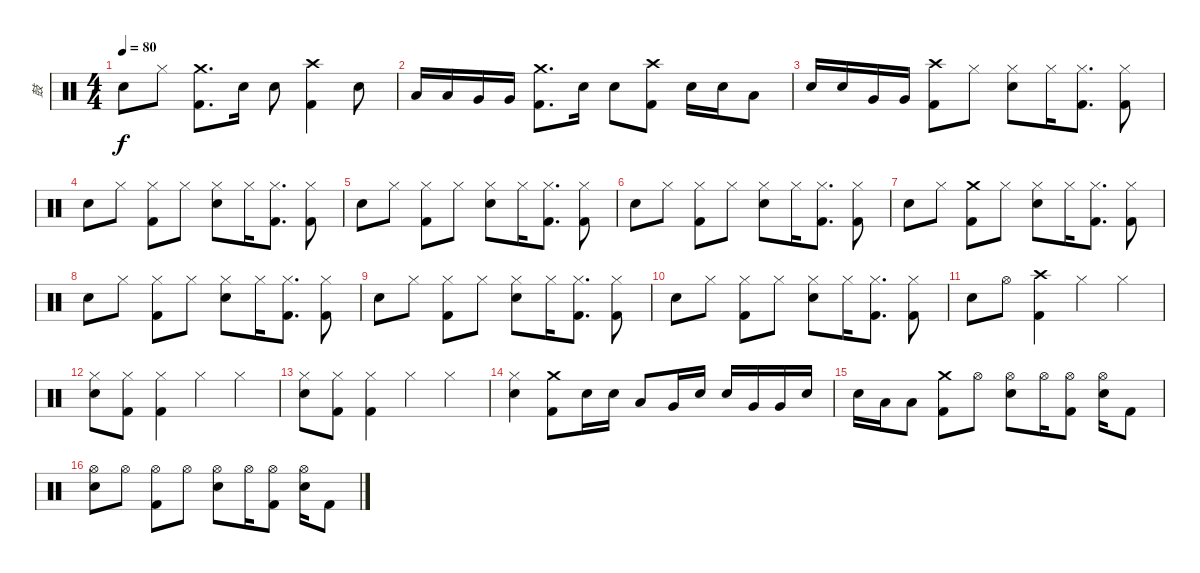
\track ("鼓" "鼓") {instrument percussion}
\staff {score}
\articulation defaults
\ts (4 4)
\tempo 80
\clef neutral
\ks c "Snare (hit) 2".8{dy f} "Hi-Hat (closed)".8
("Crash medium (hit)" "Kick (hit) 2").8{d} "Snare (hit) 2".16 "Snare (hit) 2".8 ("Crash high (hit)" "Kick (hit) 2").4 "Snare (hit) 2".8 |
"Low Tom (hit)".16 "Low Tom (hit)".16 "Very Low Tom (hit)".16 "Very Low Tom (hit)".16 ("Crash medium (hit)" "Kick (hit) 2").8{d} "Snare (hit) 2".16 "Snare (hit) 2".8 ("Crash high (hit)" "Kick (hit) 2").8 "Snare (hit) 2".16 "Snare (hit) 2".16 "Low Tom (hit)".8 |
"Snare (hit) 2".16 "Snare (hit) 2".16 "Very Low Tom (hit)".16 "Very Low Tom (hit)".16 ("Crash high (hit)" "Kick (hit) 2").8 "Hi-Hat (closed)".8 ("Hi-Hat (closed)" "Snare (hit) 2").8 "Hi-Hat (closed)".16 ("Hi-Hat (closed)" "Kick (hit) 2").8{d} ("Hi-Hat (closed)" "Kick (hit) 2").8 |
"Snare (hit) 2".8 "Hi-Hat (closed)".8 ("Hi-Hat (closed)" "Kick (hit) 2").8 "Hi-Hat (closed)".8 ("Hi-Hat (closed)" "Snare (hit) 2").8 "Hi-Hat (closed)".16 ("Hi-Hat (closed)" "Kick (hit) 2").8{d} ("Hi-Hat (closed)" "Kick (hit) 2").8 |
"Snare (hit) 2".8 "Hi-Hat (closed)".8 ("Hi-Hat (closed)" "Kick (hit) 2").8 "Hi-Hat (closed)".8 ("Hi-Hat (closed)" "Snare (hit) 2").8 "Hi-Hat (closed)".16 ("Hi-Hat (closed)" "Kick (hit) 2").8{d} ("Hi-Hat (closed)" "Kick (hit) 2").8 |
"Snare (hit) 2".8 "Hi-Hat (closed)".8 ("Hi-Hat (closed)" "Kick (hit) 2").8 "Hi-Hat (closed)".8 ("Hi-Hat (closed)" "Snare (hit) 2").8 "Hi-Hat (closed)".16 ("Hi-Hat (closed)" "Kick (hit) 2").8{d} ("Hi-Hat (closed)" "Kick (hit) 2").8 |
"Snare (hit) 2".8 "Hi-Hat (closed)".8 ("Crash medium (hit)" "Kick (hit) 2").8 "Hi-Hat (closed)".8 ("Hi-Hat (closed)" "Snare (hit) 2").8 "Hi-Hat (closed)".16 ("Hi-Hat (closed)" "Kick (hit) 2").8{d} ("Hi-Hat (closed)" "Kick (hit) 2").8 |
"Snare (hit) 2".8 "Hi-Hat (closed)".8 ("Hi-Hat (closed)" "Kick (hit) 2").8 "Hi-Hat (closed)".8 ("Hi-Hat (closed)" "Snare (hit) 2").8 "Hi-Hat (closed)".16 ("Hi-Hat (closed)" "Kick (hit) 2").8{d} ("Hi-Hat (closed)" "Kick (hit) 2").8 |
"Snare (hit) 2".8 "Hi-Hat (closed)".8 ("Hi-Hat (closed)" "Kick (hit) 2").8 "Hi-Hat (closed)".8 ("Hi-Hat (closed)" "Snare (hit) 2").8 "Hi-Hat (closed)".16 ("Hi-Hat (closed)" "Kick (hit) 2").8{d} ("Hi-Hat (closed)" "Kick (hit) 2").8 |
"Snare (hit) 2".8 "Hi-Hat (closed)".8 ("Hi-Hat (closed)" "Kick (hit) 2").8 "Hi-Hat (closed)".8 ("Hi-Hat (closed)" "Snare (hit) 2").8 "Hi-Hat (closed)".16 ("Hi-Hat (closed)" "Kick (hit) 2").8{d} ("Hi-Hat (closed)" "Kick (hit) 2").8 |
"Snare (hit) 2".8 "Hi-Hat (open)".8 ("Crash high (hit)" "Kick (hit) 2").4 "Hi-Hat (closed)".4 "Hi-Hat (closed)".4 |
("Hi-Hat (closed)" "Snare (hit) 2").8 ("Hi-Hat (closed)" "Kick (hit) 2").8 ("Hi-Hat (closed)" "Kick (hit) 2").4 "Hi-Hat (closed)".4 "Hi-Hat (closed)".4 |
("Hi-Hat (closed)" "Snare (hit) 2").8 ("Hi-Hat (closed)" "Kick (hit) 2").8 ("Hi-Hat (closed)" "Kick (hit) 2").4 "Hi-Hat (closed)".4 "Hi-Hat (closed)".4 |
("Hi-Hat (closed)" "Snare (hit) 2").4 ("Crash medium (hit)" "Kick (hit) 2").8 "Snare (hit) 2".16 "Snare (hit) 2".16 "Low Tom (hit)".8 "Very Low Tom (hit)".16 "Snare (hit) 2".16 "Snare (hit) 2".16 "Very Low Tom (hit)".16 "Very Low Tom (hit)".16 "Snare (hit) 2".16 |
"Snare (hit) 2".16 "Low Tom (hit)".16 "Low Tom (hit)".8 ("Crash medium (hit)" "Kick (hit) 2").8 "Hi-Hat (open)".8 ("Hi-Hat (open)" "Snare (hit) 2").8 "Hi-Hat (open)".16 ("Hi-Hat (open)" "Kick (hit) 2").8 ("Hi-Hat (open)" "Snare (hit) 2").16 "Kick (hit) 2".8 |
("Hi-Hat (open)" "Snare (hit) 2").8 "Hi-Hat (open)".8 ("Hi-Hat (open)" "Kick (hit) 2").8 "Hi-Hat (open)".8 ("Hi-Hat (open)" "Snare (hit) 2").8 "Hi-Hat (open)".16 ("Hi-Hat (open)" "Kick (hit) 2").8 ("Hi-Hat (open)" "Snare (hit) 2").16 "Kick (hit) 2".8
